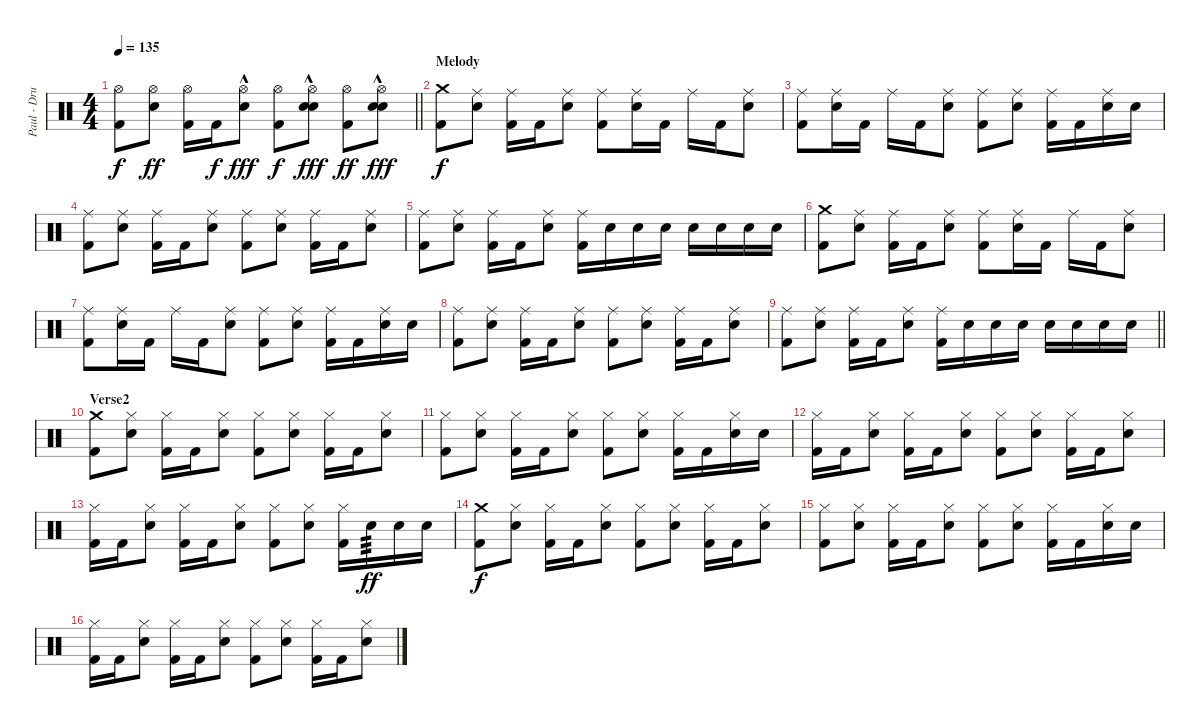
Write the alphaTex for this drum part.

\track ("Paul - Drums" "Paul - Dru") {instrument percussion}
\staff {score}
\articulation defaults
\ts (4 4)
\tempo 135
\clef neutral
\barLineRight lightlight
\ks c
("Hi-Hat (open)" "Kick (hit) 2").8{dy f} ("Hi-Hat (open)" "Electric Snare (hit)").8{dy ff} ("Hi-Hat (open)" "Kick (hit) 2").16 "Kick (hit) 2".16{dy f} ("Hi-Hat (open)" "Electric Snare (hit)"{hac}).8{dy fff} ("Hi-Hat (open)" "Kick (hit) 2").8{dy f} ("Hi-Hat (open)" "Snare (hit) 2"{hac} "Electric Snare (hit)"{hac}).8{dy fff} ("Hi-Hat (open)" "Kick (hit) 2").8{dy ff} ("Hi-Hat (open)" "Snare (hit) 2"{hac} "Electric Snare (hit)"{hac}).8{dy fff} |
\section ("" "Melody")
("Crash medium (hit)" "Kick (hit) 2").8{dy f} ("Ride (middle)" "Electric Snare (hit)").8 ("Ride (middle)" "Kick (hit) 2").16 "Kick (hit) 2".16 ("Ride (middle)" "Electric Snare (hit)").8 ("Ride (middle)" "Kick (hit) 2").8 ("Ride (middle)" "Electric Snare (hit)").16 "Kick (hit) 2".16 "Ride (middle)".16 "Kick (hit) 2".16 ("Ride (middle)" "Electric Snare (hit)").8 |
("Ride (middle)" "Kick (hit) 2").8 ("Ride (middle)" "Electric Snare (hit)").16 "Kick (hit) 2".16 "Ride (middle)".16 "Kick (hit) 2".16 ("Ride (middle)" "Electric Snare (hit)").8 ("Ride (middle)" "Kick (hit) 2").8 ("Ride (middle)" "Electric Snare (hit)").8 ("Ride (middle)" "Kick (hit) 2").16 "Kick (hit) 2".16 ("Ride (middle)" "Electric Snare (hit)").16 "Electric Snare (hit)".16 |
("Ride (middle)" "Kick (hit) 2").8 ("Ride (middle)" "Electric Snare (hit)").8 ("Ride (middle)" "Kick (hit) 2").16 "Kick (hit) 2".16 ("Ride (middle)" "Electric Snare (hit)").8 ("Ride (middle)" "Kick (hit) 2").8 ("Ride (middle)" "Electric Snare (hit)").8 ("Ride (middle)" "Kick (hit) 2").16 "Kick (hit) 2".16 ("Ride (middle)" "Electric Snare (hit)").8 |
("Ride (middle)" "Kick (hit) 2").8 ("Ride (middle)" "Electric Snare (hit)").8 ("Ride (middle)" "Kick (hit) 2").16 "Kick (hit) 2".16 ("Ride (middle)" "Electric Snare (hit)").8 ("Ride (middle)" "Kick (hit) 2").16 "Electric Snare (hit)".16 "Electric Snare (hit)".16 "Electric Snare (hit)".16 "Electric Snare (hit)".16 "Electric Snare (hit)".16 "Electric Snare (hit)".16 "Electric Snare (hit)".16 |
("Crash medium (hit)" "Kick (hit) 2").8 ("Ride (middle)" "Electric Snare (hit)").8 ("Ride (middle)" "Kick (hit) 2").16 "Kick (hit) 2".16 ("Ride (middle)" "Electric Snare (hit)").8 ("Ride (middle)" "Kick (hit) 2").8 ("Ride (middle)" "Electric Snare (hit)").16 "Kick (hit) 2".16 "Ride (middle)".16 "Kick (hit) 2".16 ("Ride (middle)" "Electric Snare (hit)").8 |
("Ride (middle)" "Kick (hit) 2").8 ("Ride (middle)" "Electric Snare (hit)").16 "Kick (hit) 2".16 "Ride (middle)".16 "Kick (hit) 2".16 ("Ride (middle)" "Electric Snare (hit)").8 ("Ride (middle)" "Kick (hit) 2").8 ("Ride (middle)" "Electric Snare (hit)").8 ("Ride (middle)" "Kick (hit) 2").16 "Kick (hit) 2".16 ("Ride (middle)" "Electric Snare (hit)").16 "Electric Snare (hit)".16 |
("Ride (middle)" "Kick (hit) 2").8 ("Ride (middle)" "Electric Snare (hit)").8 ("Ride (middle)" "Kick (hit) 2").16 "Kick (hit) 2".16 ("Ride (middle)" "Electric Snare (hit)").8 ("Ride (middle)" "Kick (hit) 2").8 ("Ride (middle)" "Electric Snare (hit)").8 ("Ride (middle)" "Kick (hit) 2").16 "Kick (hit) 2".16 ("Ride (middle)" "Electric Snare (hit)").8 |
\barLineRight lightlight
("Ride (middle)" "Kick (hit) 2").8 ("Ride (middle)" "Electric Snare (hit)").8 ("Ride (middle)" "Kick (hit) 2").16 "Kick (hit) 2".16 ("Ride (middle)" "Electric Snare (hit)").8 ("Ride (middle)" "Kick (hit) 2").16 "Electric Snare (hit)".16 "Electric Snare (hit)".16 "Electric Snare (hit)".16 "Electric Snare (hit)".16 "Electric Snare (hit)".16 "Electric Snare (hit)".16 "Electric Snare (hit)".16 |
\section ("" "Verse2")
("Crash medium (hit)" "Kick (hit) 2").8 ("Hi-Hat (closed)" "Electric Snare (hit)").8 ("Hi-Hat (closed)" "Kick (hit) 2").16 "Kick (hit) 2".16 ("Hi-Hat (closed)" "Electric Snare (hit)").8 ("Hi-Hat (closed)" "Kick (hit) 2").8 ("Hi-Hat (closed)" "Electric Snare (hit)").8 ("Hi-Hat (closed)" "Kick (hit) 2").16 "Kick (hit) 2".16 ("Hi-Hat (closed)" "Electric Snare (hit)").8 |
("Hi-Hat (closed)" "Kick (hit) 2").8 ("Hi-Hat (closed)" "Electric Snare (hit)").8 ("Hi-Hat (closed)" "Kick (hit) 2").16 "Kick (hit) 2".16 ("Hi-Hat (closed)" "Electric Snare (hit)").8 ("Hi-Hat (closed)" "Kick (hit) 2").8 ("Hi-Hat (closed)" "Electric Snare (hit)").8 ("Hi-Hat (closed)" "Kick (hit) 2").16 "Kick (hit) 2".16 ("Hi-Hat (closed)" "Electric Snare (hit)").16 "Electric Snare (hit)".16 |
("Hi-Hat (closed)" "Kick (hit) 2").16 "Kick (hit) 2".16 ("Hi-Hat (closed)" "Electric Snare (hit)").8 ("Hi-Hat (closed)" "Kick (hit) 2").16 "Kick (hit) 2".16 ("Hi-Hat (closed)" "Electric Snare (hit)").8 ("Hi-Hat (closed)" "Kick (hit) 2").8 ("Hi-Hat (closed)" "Electric Snare (hit)").8 ("Hi-Hat (closed)" "Kick (hit) 2").16 "Kick (hit) 2".16 ("Hi-Hat (closed)" "Electric Snare (hit)").8 |
("Hi-Hat (closed)" "Kick (hit) 2").16 "Kick (hit) 2".16 ("Hi-Hat (closed)" "Electric Snare (hit)").8 ("Hi-Hat (closed)" "Kick (hit) 2").16 "Kick (hit) 2".16 ("Hi-Hat (closed)" "Electric Snare (hit)").8 ("Hi-Hat (closed)" "Kick (hit) 2").8 ("Hi-Hat (closed)" "Electric Snare (hit)").8 ("Hi-Hat (closed)" "Kick (hit) 2").16 "Electric Snare (hit)".16{tp 3 dy ff} "Electric Snare (hit)".16 "Electric Snare (hit)".16 |
("Crash medium (hit)" "Kick (hit) 2").8{dy f} ("Hi-Hat (closed)" "Electric Snare (hit)").8 ("Hi-Hat (closed)" "Kick (hit) 2").16 "Kick (hit) 2".16 ("Hi-Hat (closed)" "Electric Snare (hit)").8 ("Hi-Hat (closed)" "Kick (hit) 2").8 ("Hi-Hat (closed)" "Electric Snare (hit)").8 ("Hi-Hat (closed)" "Kick (hit) 2").16 "Kick (hit) 2".16 ("Hi-Hat (closed)" "Electric Snare (hit)").8 |
("Hi-Hat (closed)" "Kick (hit) 2").8 ("Hi-Hat (closed)" "Electric Snare (hit)").8 ("Hi-Hat (closed)" "Kick (hit) 2").16 "Kick (hit) 2".16 ("Hi-Hat (closed)" "Electric Snare (hit)").8 ("Hi-Hat (closed)" "Kick (hit) 2").8 ("Hi-Hat (closed)" "Electric Snare (hit)").8 ("Hi-Hat (closed)" "Kick (hit) 2").16 "Kick (hit) 2".16 ("Hi-Hat (closed)" "Electric Snare (hit)").16 "Electric Snare (hit)".16 |
("Hi-Hat (closed)" "Kick (hit) 2").16 "Kick (hit) 2".16 ("Hi-Hat (closed)" "Electric Snare (hit)").8 ("Hi-Hat (closed)" "Kick (hit) 2").16 "Kick (hit) 2".16 ("Hi-Hat (closed)" "Electric Snare (hit)").8 ("Hi-Hat (closed)" "Kick (hit) 2").8 ("Hi-Hat (closed)" "Electric Snare (hit)").8 ("Hi-Hat (closed)" "Kick (hit) 2").16 "Kick (hit) 2".16 ("Hi-Hat (closed)" "Electric Snare (hit)").8
